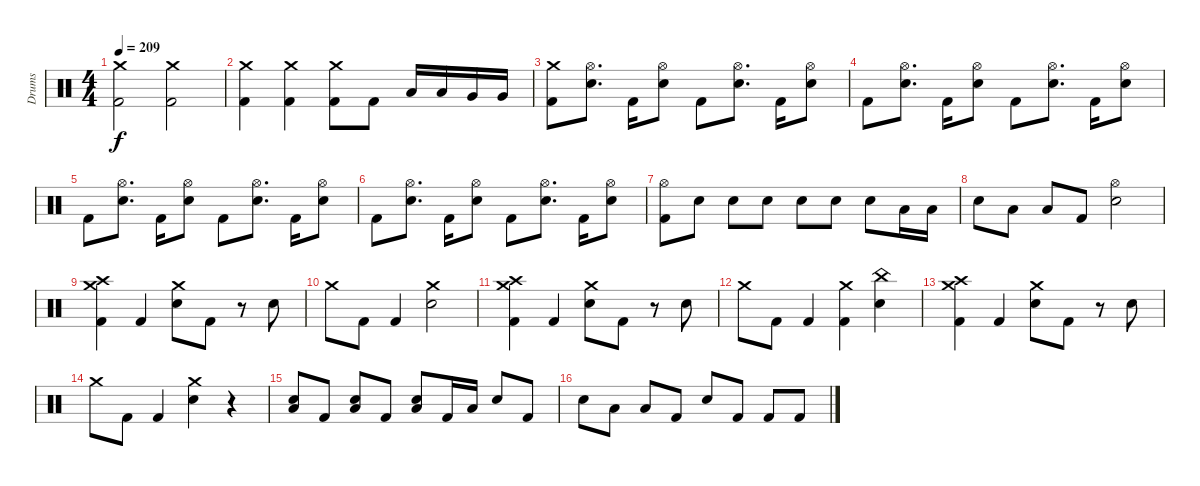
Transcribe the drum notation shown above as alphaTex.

\track ("Drums" "Drums") {instrument percussion}
\staff {score}
\articulation defaults
\ts (4 4)
\tempo 209
\clef neutral
\ks c
("Crash medium (hit)" "Kick (hit) 2").2{dy f} ("Crash medium (hit)" "Kick (hit) 2").2 |
("Crash medium (hit)" "Kick (hit) 2").4 ("Crash medium (hit)" "Kick (hit) 2").4 ("Crash medium (hit)" "Kick (hit) 2").8 "Kick (hit) 2".8 "Low Tom (hit)".16 "Low Tom (hit)".16 "Very Low Tom (hit)".16 "Very Low Tom (hit)".16 |
("Crash medium (hit)" "Kick (hit) 2").8 ("Hi-Hat (open)" "Electric Snare (hit)").8{d} "Kick (hit) 2".16 ("Hi-Hat (open)" "Electric Snare (hit)").8 "Kick (hit) 2".8 ("Hi-Hat (open)" "Electric Snare (hit)").8{d} "Kick (hit) 2".16 ("Hi-Hat (open)" "Electric Snare (hit)").8 |
"Kick (hit) 2".8 ("Hi-Hat (open)" "Electric Snare (hit)").8{d} "Kick (hit) 2".16 ("Hi-Hat (open)" "Electric Snare (hit)").8 "Kick (hit) 2".8 ("Hi-Hat (open)" "Electric Snare (hit)").8{d} "Kick (hit) 2".16 ("Hi-Hat (open)" "Electric Snare (hit)").8 |
"Kick (hit) 2".8 ("Hi-Hat (open)" "Electric Snare (hit)").8{d} "Kick (hit) 2".16 ("Hi-Hat (open)" "Electric Snare (hit)").8 "Kick (hit) 2".8 ("Hi-Hat (open)" "Electric Snare (hit)").8{d} "Kick (hit) 2".16 ("Hi-Hat (open)" "Electric Snare (hit)").8 |
"Kick (hit) 2".8 ("Hi-Hat (open)" "Electric Snare (hit)").8{d} "Kick (hit) 2".16 ("Hi-Hat (open)" "Electric Snare (hit)").8 "Kick (hit) 2".8 ("Hi-Hat (open)" "Electric Snare (hit)").8{d} "Kick (hit) 2".16 ("Hi-Hat (open)" "Electric Snare (hit)").8 |
("Hi-Hat (open)" "Kick (hit) 2").8 "Electric Snare (hit)".8 "Electric Snare (hit)".8 "Electric Snare (hit)".8 "Electric Snare (hit)".8 "Electric Snare (hit)".8 "Electric Snare (hit)".8 "Low Tom (hit)".16 "Low Tom (hit)".16 |
"Electric Snare (hit)".8 "Low Tom (hit)".8 "Low Floor Tom (hit)".8 "Kick (hit) 2".8 ("Hi-Hat (open)" "Electric Snare (hit)").2 |
("Crash medium (hit)" "Crash high (hit)" "Kick (hit) 2").4 "Kick (hit) 2".4 ("Crash medium (hit)" "Electric Snare (hit)").8 "Kick (hit) 2".8 r.8 "Electric Snare (hit)".8 |
"Crash medium (hit)".8 "Kick (hit) 2".8 "Kick (hit) 2".4 ("Crash medium (hit)" "Electric Snare (hit)").2 |
("Crash medium (hit)" "Crash high (hit)" "Kick (hit) 2").4 "Kick (hit) 2".4 ("Crash medium (hit)" "Electric Snare (hit)").8 "Kick (hit) 2".8 r.8 "Electric Snare (hit)".8 |
"Crash medium (hit)".8 "Kick (hit) 2".8 "Kick (hit) 2".4 ("Crash medium (hit)" "Kick (hit) 2").4 ("China (hit)" "Electric Snare (hit)").4 |
("Crash medium (hit)" "Crash high (hit)" "Kick (hit) 2").4 "Kick (hit) 2".4 ("Crash medium (hit)" "Electric Snare (hit)").8 "Kick (hit) 2".8 r.8 "Electric Snare (hit)".8 |
"Crash medium (hit)".8 "Kick (hit) 2".8 "Kick (hit) 2".4 ("Crash medium (hit)" "Electric Snare (hit)").4 r.4 |
("Low Floor Tom (hit)" "Electric Snare (hit)").8 "Kick (hit) 2".8 ("Low Floor Tom (hit)" "Electric Snare (hit)").8 "Kick (hit) 2".8 ("Low Floor Tom (hit)" "Electric Snare (hit)").8 "Kick (hit) 2".16 "Low Floor Tom (hit)".16 "Electric Snare (hit)".8 "Kick (hit) 2".8 |
"Electric Snare (hit)".8 "Low Tom (hit)".8 "Low Floor Tom (hit)".8 "Kick (hit) 2".8 "Electric Snare (hit)".8 "Kick (hit) 2".8 "Kick (hit) 2".8 "Kick (hit) 2".8
